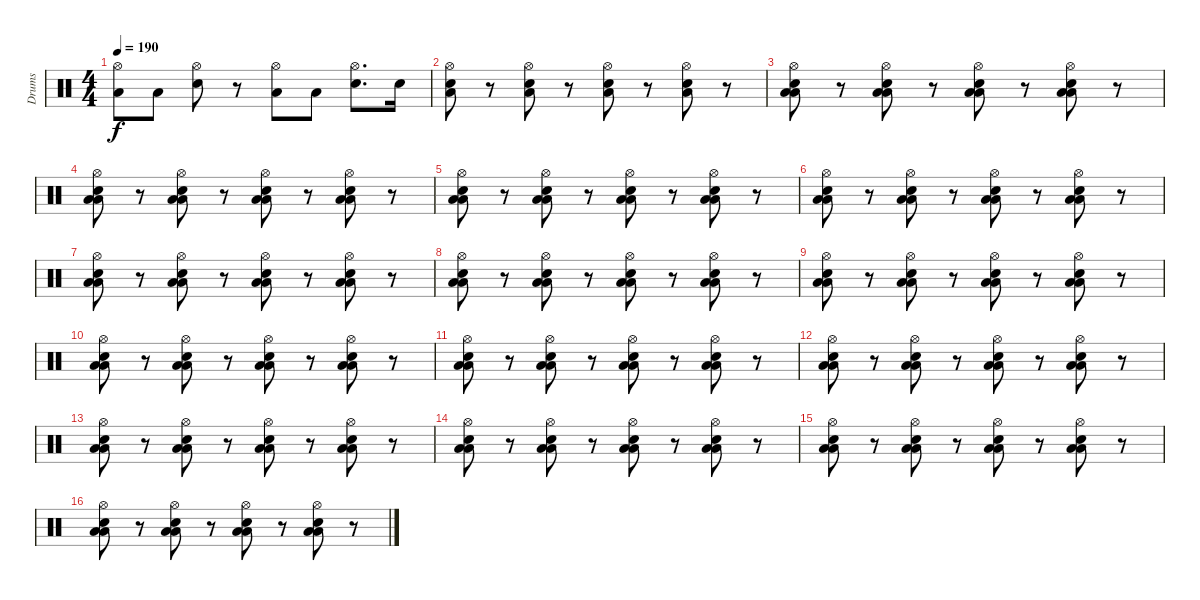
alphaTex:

\track ("Drums" "Drums") {instrument percussion}
\staff {score}
\articulation defaults
\ts (4 4)
\tempo 190
\clef neutral
\ks c
("Low Tom (hit)" "Hi-Hat (open)").8{dy f} "Low Tom (hit)".8 ("Electric Snare (hit)" "Hi-Hat (open)").8 r.8 ("Low Tom (hit)" "Hi-Hat (open)").8 "Low Tom (hit)".8 ("Electric Snare (hit)" "Hi-Hat (open)").8{d} "Electric Snare (hit)".16 |
("Electric Snare (hit)" "Low Tom (hit)" "Hi-Hat (open)").8 r.8 ("Electric Snare (hit)" "Low Tom (hit)" "Hi-Hat (open)").8 r.8 ("Electric Snare (hit)" "Low Tom (hit)" "Hi-Hat (open)").8 r.8 ("Electric Snare (hit)" "Low Tom (hit)" "Hi-Hat (open)").8 r.8 |
("Electric Snare (hit)" "Low Tom (hit)" "Low Tom (hit)" "Hi-Hat (open)").8 r.8 ("Electric Snare (hit)" "Low Tom (hit)" "Low Tom (hit)" "Hi-Hat (open)").8 r.8 ("Electric Snare (hit)" "Low Tom (hit)" "Low Tom (hit)" "Hi-Hat (open)").8 r.8 ("Electric Snare (hit)" "Low Tom (hit)" "Low Tom (hit)" "Hi-Hat (open)").8 r.8 |
("Electric Snare (hit)" "Low Tom (hit)" "Low Tom (hit)" "Hi-Hat (open)").8 r.8 ("Electric Snare (hit)" "Low Tom (hit)" "Low Tom (hit)" "Hi-Hat (open)").8 r.8 ("Electric Snare (hit)" "Low Tom (hit)" "Low Tom (hit)" "Hi-Hat (open)").8 r.8 ("Electric Snare (hit)" "Low Tom (hit)" "Low Tom (hit)" "Hi-Hat (open)").8 r.8 |
("Electric Snare (hit)" "Low Tom (hit)" "Low Tom (hit)" "Hi-Hat (open)").8 r.8 ("Electric Snare (hit)" "Low Tom (hit)" "Low Tom (hit)" "Hi-Hat (open)").8 r.8 ("Electric Snare (hit)" "Low Tom (hit)" "Low Tom (hit)" "Hi-Hat (open)").8 r.8 ("Electric Snare (hit)" "Low Tom (hit)" "Low Tom (hit)" "Hi-Hat (open)").8 r.8 |
("Electric Snare (hit)" "Low Tom (hit)" "Low Tom (hit)" "Hi-Hat (open)").8 r.8 ("Electric Snare (hit)" "Low Tom (hit)" "Low Tom (hit)" "Hi-Hat (open)").8 r.8 ("Electric Snare (hit)" "Low Tom (hit)" "Low Tom (hit)" "Hi-Hat (open)").8 r.8 ("Electric Snare (hit)" "Low Tom (hit)" "Low Tom (hit)" "Hi-Hat (open)").8 r.8 |
("Electric Snare (hit)" "Low Tom (hit)" "Low Tom (hit)" "Hi-Hat (open)").8 r.8 ("Electric Snare (hit)" "Low Tom (hit)" "Low Tom (hit)" "Hi-Hat (open)").8 r.8 ("Electric Snare (hit)" "Low Tom (hit)" "Low Tom (hit)" "Hi-Hat (open)").8 r.8 ("Electric Snare (hit)" "Low Tom (hit)" "Low Tom (hit)" "Hi-Hat (open)").8 r.8 |
("Electric Snare (hit)" "Low Tom (hit)" "Low Tom (hit)" "Hi-Hat (open)").8 r.8 ("Electric Snare (hit)" "Low Tom (hit)" "Low Tom (hit)" "Hi-Hat (open)").8 r.8 ("Electric Snare (hit)" "Low Tom (hit)" "Low Tom (hit)" "Hi-Hat (open)").8 r.8 ("Electric Snare (hit)" "Low Tom (hit)" "Low Tom (hit)" "Hi-Hat (open)").8 r.8 |
("Electric Snare (hit)" "Low Tom (hit)" "Low Tom (hit)" "Hi-Hat (open)").8 r.8 ("Electric Snare (hit)" "Low Tom (hit)" "Low Tom (hit)" "Hi-Hat (open)").8 r.8 ("Electric Snare (hit)" "Low Tom (hit)" "Low Tom (hit)" "Hi-Hat (open)").8 r.8 ("Electric Snare (hit)" "Low Tom (hit)" "Low Tom (hit)" "Hi-Hat (open)").8 r.8 |
("Electric Snare (hit)" "Low Tom (hit)" "Low Tom (hit)" "Hi-Hat (open)").8 r.8 ("Electric Snare (hit)" "Low Tom (hit)" "Low Tom (hit)" "Hi-Hat (open)").8 r.8 ("Electric Snare (hit)" "Low Tom (hit)" "Low Tom (hit)" "Hi-Hat (open)").8 r.8 ("Electric Snare (hit)" "Low Tom (hit)" "Low Tom (hit)" "Hi-Hat (open)").8 r.8 |
("Electric Snare (hit)" "Low Tom (hit)" "Low Tom (hit)" "Hi-Hat (open)").8 r.8 ("Electric Snare (hit)" "Low Tom (hit)" "Low Tom (hit)" "Hi-Hat (open)").8 r.8 ("Electric Snare (hit)" "Low Tom (hit)" "Low Tom (hit)" "Hi-Hat (open)").8 r.8 ("Electric Snare (hit)" "Low Tom (hit)" "Low Tom (hit)" "Hi-Hat (open)").8 r.8 |
("Electric Snare (hit)" "Low Tom (hit)" "Low Tom (hit)" "Hi-Hat (open)").8 r.8 ("Electric Snare (hit)" "Low Tom (hit)" "Low Tom (hit)" "Hi-Hat (open)").8 r.8 ("Electric Snare (hit)" "Low Tom (hit)" "Low Tom (hit)" "Hi-Hat (open)").8 r.8 ("Electric Snare (hit)" "Low Tom (hit)" "Low Tom (hit)" "Hi-Hat (open)").8 r.8 |
("Electric Snare (hit)" "Low Tom (hit)" "Low Tom (hit)" "Hi-Hat (open)").8 r.8 ("Electric Snare (hit)" "Low Tom (hit)" "Low Tom (hit)" "Hi-Hat (open)").8 r.8 ("Electric Snare (hit)" "Low Tom (hit)" "Low Tom (hit)" "Hi-Hat (open)").8 r.8 ("Electric Snare (hit)" "Low Tom (hit)" "Low Tom (hit)" "Hi-Hat (open)").8 r.8 |
("Electric Snare (hit)" "Low Tom (hit)" "Low Tom (hit)" "Hi-Hat (open)").8 r.8 ("Electric Snare (hit)" "Low Tom (hit)" "Low Tom (hit)" "Hi-Hat (open)").8 r.8 ("Electric Snare (hit)" "Low Tom (hit)" "Low Tom (hit)" "Hi-Hat (open)").8 r.8 ("Electric Snare (hit)" "Low Tom (hit)" "Low Tom (hit)" "Hi-Hat (open)").8 r.8 |
("Electric Snare (hit)" "Low Tom (hit)" "Low Tom (hit)" "Hi-Hat (open)").8 r.8 ("Electric Snare (hit)" "Low Tom (hit)" "Low Tom (hit)" "Hi-Hat (open)").8 r.8 ("Electric Snare (hit)" "Low Tom (hit)" "Low Tom (hit)" "Hi-Hat (open)").8 r.8 ("Electric Snare (hit)" "Low Tom (hit)" "Low Tom (hit)" "Hi-Hat (open)").8 r.8 |
("Electric Snare (hit)" "Low Tom (hit)" "Low Tom (hit)" "Hi-Hat (open)").8 r.8 ("Electric Snare (hit)" "Low Tom (hit)" "Low Tom (hit)" "Hi-Hat (open)").8 r.8 ("Electric Snare (hit)" "Low Tom (hit)" "Low Tom (hit)" "Hi-Hat (open)").8 r.8 ("Electric Snare (hit)" "Low Tom (hit)" "Low Tom (hit)" "Hi-Hat (open)").8 r.8
